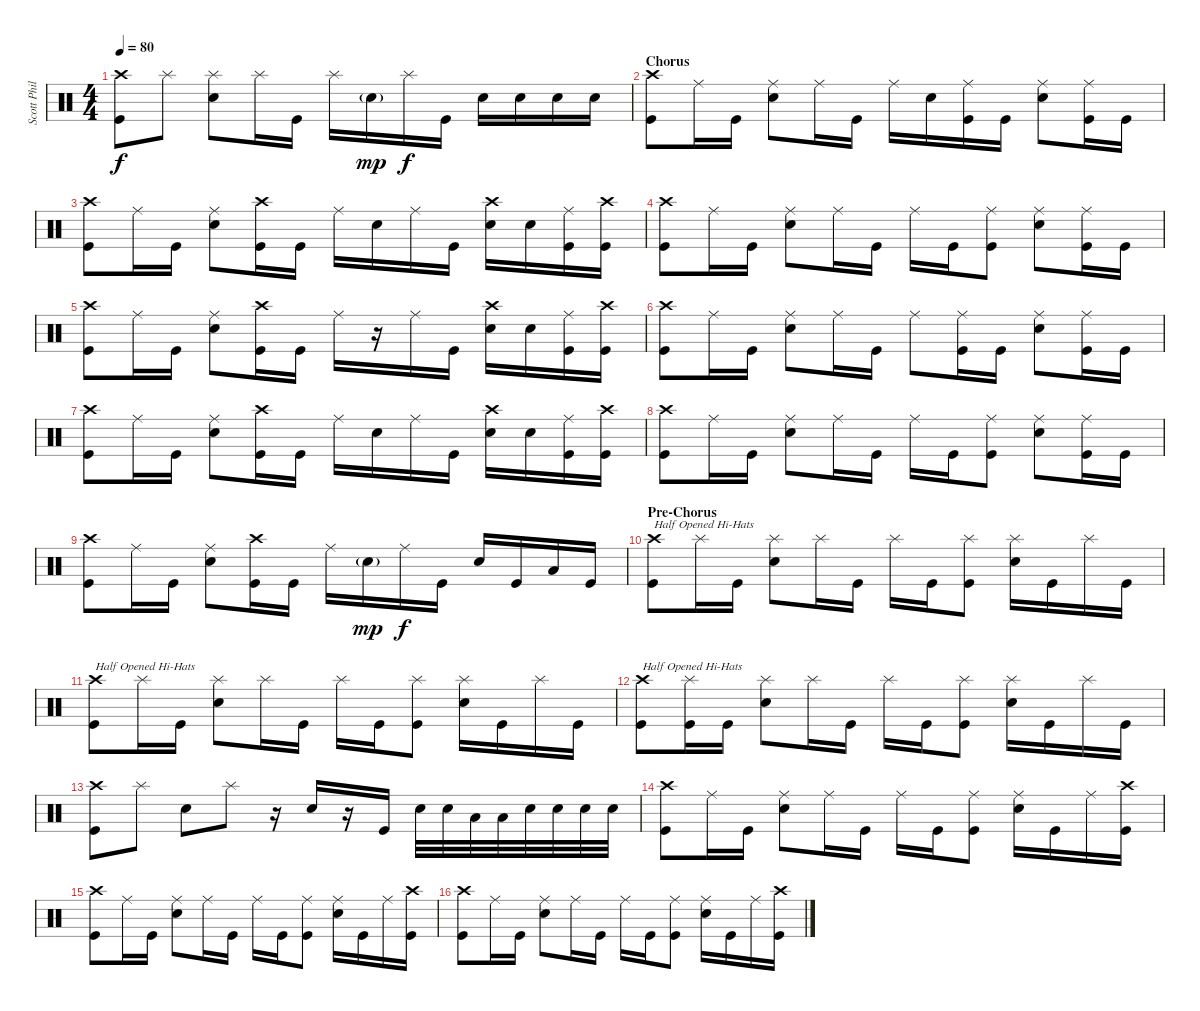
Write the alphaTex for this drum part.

\track ("Scott Phillips" "Scott Phil") {instrument percussion}
\staff {score}
\articulation defaults
\ts (4 4)
\tempo 80
\clef neutral
\ks c
("Crash high (hit)" "Kick (hit)").8{dy f} "Splash (hit)".8 ("Splash (hit)" "Snare (hit) 2").8 "Splash (hit)".16 "Kick (hit)".16 "Splash (hit)".16 "Snare (hit) 2"{g}.16{dy mp} "Splash (hit)".16{dy f} "Kick (hit)".16 "Snare (hit) 2".16 "Snare (hit) 2".16 "Snare (hit) 2".16 "Snare (hit) 2".16 |
\section ("" "Chorus")
("Crash high (hit)" "Kick (hit)").8 "Ride (middle)".16 "Kick (hit)".16 ("Ride (middle)" "Snare (hit) 2").8 "Ride (middle)".16 "Kick (hit)".16 "Ride (middle)".16 "Snare (hit) 2".16 ("Ride (middle)" "Kick (hit)").16 "Kick (hit)".16 ("Ride (middle)" "Snare (hit) 2").8 ("Ride (middle)" "Kick (hit)").16 "Kick (hit)".16 |
("Crash high (hit)" "Kick (hit)").8 "Ride (middle)".16 "Kick (hit)".16 ("Ride (middle)" "Snare (hit) 2").8 ("Crash high (hit)" "Kick (hit)").16 "Kick (hit)".16 "Ride (middle)".16 "Snare (hit) 2".16 "Ride (middle)".16 "Kick (hit)".16 ("Crash high (hit)" "Snare (hit) 2").16 "Snare (hit) 2".16 ("Ride (middle)" "Kick (hit)").16 ("Crash high (hit)" "Kick (hit)").16 |
("Crash high (hit)" "Kick (hit)").8 "Ride (middle)".16 "Kick (hit)".16 ("Ride (middle)" "Snare (hit) 2").8 "Ride (middle)".16 "Kick (hit)".16 "Ride (middle)".16 "Kick (hit)".16 ("Ride (middle)" "Kick (hit)").8 ("Ride (middle)" "Snare (hit) 2").8 ("Ride (middle)" "Kick (hit)").16 "Kick (hit)".16 |
("Crash high (hit)" "Kick (hit)").8 "Ride (middle)".16 "Kick (hit)".16 ("Ride (middle)" "Snare (hit) 2").8 ("Crash high (hit)" "Kick (hit)").16 "Kick (hit)".16 "Ride (middle)".16 r.16 "Ride (middle)".16 "Kick (hit)".16 ("Crash high (hit)" "Snare (hit) 2").16 "Snare (hit) 2".16 ("Ride (middle)" "Kick (hit)").16 ("Crash high (hit)" "Kick (hit)").16 |
("Crash high (hit)" "Kick (hit)").8 "Ride (middle)".16 "Kick (hit)".16 ("Ride (middle)" "Snare (hit) 2").8 "Ride (middle)".16 "Kick (hit)".16 "Ride (middle)".8 ("Ride (middle)" "Kick (hit)").16 "Kick (hit)".16 ("Ride (middle)" "Snare (hit) 2").8 ("Ride (middle)" "Kick (hit)").16 "Kick (hit)".16 |
("Crash high (hit)" "Kick (hit)").8 "Ride (middle)".16 "Kick (hit)".16 ("Ride (middle)" "Snare (hit) 2").8 ("Crash high (hit)" "Kick (hit)").16 "Kick (hit)".16 "Ride (middle)".16 "Snare (hit) 2".16 "Ride (middle)".16 "Kick (hit)".16 ("Crash high (hit)" "Snare (hit) 2").16 "Snare (hit) 2".16 ("Ride (middle)" "Kick (hit)").16 ("Crash high (hit)" "Kick (hit)").16 |
("Crash high (hit)" "Kick (hit)").8 "Ride (middle)".16 "Kick (hit)".16 ("Ride (middle)" "Snare (hit) 2").8 "Ride (middle)".16 "Kick (hit)".16 "Ride (middle)".16 "Kick (hit)".16 ("Ride (middle)" "Kick (hit)").8 ("Ride (middle)" "Snare (hit) 2").8 ("Ride (middle)" "Kick (hit)").16 "Kick (hit)".16 |
("Crash high (hit)" "Kick (hit)").8 "Ride (middle)".16 "Kick (hit)".16 ("Ride (middle)" "Snare (hit) 2").8 ("Crash high (hit)" "Kick (hit)").16 "Kick (hit)".16 "Ride (middle)".16 "Snare (hit) 2"{g}.16{dy mp} "Ride (middle)".16{dy f} "Kick (hit)".16 "Snare (hit) 2".16 "Kick (hit)".16 "Low Tom (hit)".16 "Kick (hit)".16 |
\section ("" "Pre-Chorus")
("Crash high (hit)" "Kick (hit)").8{txt "Half Opened Hi-Hats"} "Splash (hit)".16 "Kick (hit)".16 ("Splash (hit)" "Snare (hit) 2").8 "Splash (hit)".16 "Kick (hit)".16 "Splash (hit)".16 "Kick (hit)".16 ("Splash (hit)" "Kick (hit)").8 ("Splash (hit)" "Snare (hit) 2").16 "Kick (hit)".16 "Splash (hit)".16 "Kick (hit)".16 |
("Crash high (hit)" "Kick (hit)").8{txt "Half Opened Hi-Hats"} "Splash (hit)".16 "Kick (hit)".16 ("Splash (hit)" "Snare (hit) 2").8 "Splash (hit)".16 "Kick (hit)".16 "Splash (hit)".16 "Kick (hit)".16 ("Splash (hit)" "Kick (hit)").8 ("Splash (hit)" "Snare (hit) 2").16 "Kick (hit)".16 "Splash (hit)".16 "Kick (hit)".16 |
("Crash high (hit)" "Kick (hit)").8{txt "Half Opened Hi-Hats"} ("Splash (hit)" "Kick (hit)").16 "Kick (hit)".16 ("Splash (hit)" "Snare (hit) 2").8 "Splash (hit)".16 "Kick (hit)".16 "Splash (hit)".16 "Kick (hit)".16 ("Splash (hit)" "Kick (hit)").8 ("Splash (hit)" "Snare (hit) 2").16 "Kick (hit)".16 "Splash (hit)".16 "Kick (hit)".16 |
("Crash high (hit)" "Kick (hit)").8 "Splash (hit)".8 "Snare (hit) 2".8 "Splash (hit)".8 r.16 "Snare (hit) 2".16 r.16 "Kick (hit)".16 "Snare (hit) 2".32 "Snare (hit) 2".32 "Low Tom (hit)".32 "Low Tom (hit)".32 "Snare (hit) 2".32 "Snare (hit) 2".32 "Snare (hit) 2".32 "Snare (hit) 2".32 |
("Crash high (hit)" "Kick (hit)").8 "Ride (middle)".16 "Kick (hit)".16 ("Ride (middle)" "Snare (hit) 2").8 "Ride (middle)".16 "Kick (hit)".16 "Ride (middle)".16 "Kick (hit)".16 ("Ride (middle)" "Kick (hit)").8 ("Ride (middle)" "Snare (hit) 2").16 "Kick (hit)".16 "Ride (middle)".16 ("Crash high (hit)" "Kick (hit)").16 |
("Crash high (hit)" "Kick (hit)").8 "Ride (middle)".16 "Kick (hit)".16 ("Ride (middle)" "Snare (hit) 2").8 "Ride (middle)".16 "Kick (hit)".16 "Ride (middle)".16 "Kick (hit)".16 ("Ride (middle)" "Kick (hit)").8 ("Ride (middle)" "Snare (hit) 2").16 "Kick (hit)".16 "Ride (middle)".16 ("Crash high (hit)" "Kick (hit)").16 |
("Crash high (hit)" "Kick (hit)").8 "Ride (middle)".16 "Kick (hit)".16 ("Ride (middle)" "Snare (hit) 2").8 "Ride (middle)".16 "Kick (hit)".16 "Ride (middle)".16 "Kick (hit)".16 ("Ride (middle)" "Kick (hit)").8 ("Ride (middle)" "Snare (hit) 2").16 "Kick (hit)".16 "Ride (middle)".16 ("Crash high (hit)" "Kick (hit)").16
